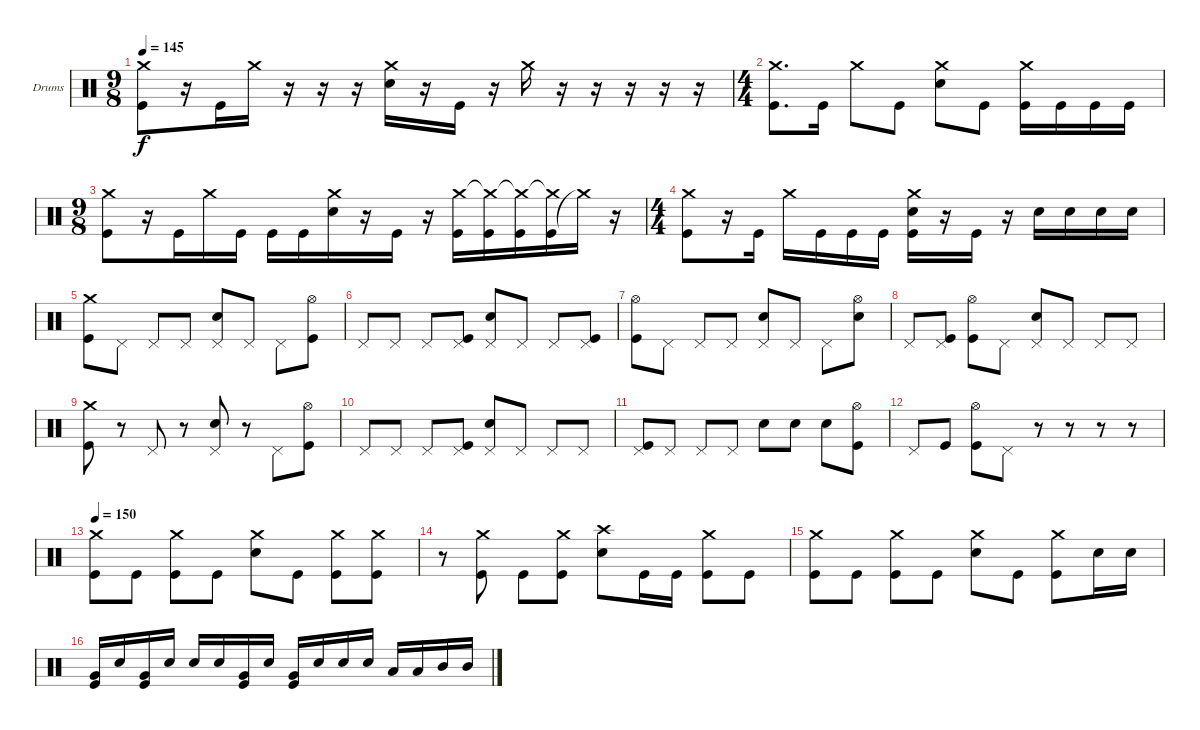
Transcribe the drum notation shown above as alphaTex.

\defaultSystemsLayout 4
\bracketExtendMode groupsimilarinstruments
\firstSystemTrackNameOrientation horizontal
\otherSystemsTrackNameOrientation horizontal
\track ("Moe Carlson" "Drums") {instrument percussion}
\staff {score}
\articulation defaults
\ts (9 8)
\tempo 145
\clef neutral
\ks c
("Crash medium (hit)" "Kick (hit)").8{dy f} r.16 "Kick (hit)".16 "Crash medium (hit)".16 r.16 r.16 r.16 ("Snare (hit) 2" "Crash medium (hit)").16 r.16 "Kick (hit)".16 r.16 "Crash medium (hit)".16 r.16 r.16 r.16 r.16 r.16 |
\ts (4 4)
("Crash medium (hit)" "Kick (hit)").8{d} "Kick (hit)".16 "Crash medium (hit)".8 "Kick (hit)".8 ("Snare (hit) 2" "Crash medium (hit)").8 "Kick (hit)".8 ("Kick (hit)" "Crash medium (hit)").16 "Kick (hit)".16 "Kick (hit)".16 "Kick (hit)".16 |
\ts (9 8)
("Kick (hit)" "Crash medium (hit)").8 r.16 "Kick (hit)".16 "Crash medium (hit)".16 "Kick (hit)".16 "Kick (hit)".16 "Kick (hit)".16 ("Snare (hit) 2" "Crash medium (hit)").16 r.16 "Kick (hit)".16 r.16 ("Kick (hit)" "Crash medium (hit)").16 ("Kick (hit)" "Crash medium (hit)"{t}).16 ("Kick (hit)" "Crash medium (hit)"{t}).16 ("Kick (hit)" "Crash medium (hit)"{t}).16 "Crash medium (hit)"{t}.16 r.16 |
\ts (4 4)
("Crash medium (hit)" "Kick (hit)").8 r.16 "Kick (hit)".16 "Crash medium (hit)".16 "Kick (hit)".16 "Kick (hit)".16 "Kick (hit)".16 ("Kick (hit)" "Snare (hit) 2" "Crash medium (hit)").16 r.16 "Kick (hit)".16 r.16 "Snare (hit) 2".16 "Snare (hit) 2".16 "Snare (hit) 2".16 "Snare (hit) 2".16 |
("Crash medium (hit)" "Kick (hit)").8 "Pedal Hi-Hat (hit)".8 "Pedal Hi-Hat (hit)".8 "Pedal Hi-Hat (hit)".8 ("Snare (hit) 2" "Pedal Hi-Hat (hit)").8 "Pedal Hi-Hat (hit)".8 "Pedal Hi-Hat (hit)".8 ("Hi-Hat (open)" "Kick (hit)").8 |
"Pedal Hi-Hat (hit)".8 "Pedal Hi-Hat (hit)".8 "Pedal Hi-Hat (hit)".8 ("Kick (hit)" "Pedal Hi-Hat (hit)").8 ("Pedal Hi-Hat (hit)" "Snare (hit) 2").8 "Pedal Hi-Hat (hit)".8 "Pedal Hi-Hat (hit)".8 ("Pedal Hi-Hat (hit)" "Kick (hit)").8 |
("Kick (hit)" "Hi-Hat (open)").8 "Pedal Hi-Hat (hit)".8 "Pedal Hi-Hat (hit)".8 "Pedal Hi-Hat (hit)".8 ("Pedal Hi-Hat (hit)" "Snare (hit) 2").8 "Pedal Hi-Hat (hit)".8 "Pedal Hi-Hat (hit)".8 ("Hi-Hat (open)" "Snare (hit) 2").8 |
"Pedal Hi-Hat (hit)".8 ("Pedal Hi-Hat (hit)" "Kick (hit)").8 ("Hi-Hat (open)" "Kick (hit)").8 "Pedal Hi-Hat (hit)".8 ("Pedal Hi-Hat (hit)" "Snare (hit) 2").8 "Pedal Hi-Hat (hit)".8 "Pedal Hi-Hat (hit)".8 "Pedal Hi-Hat (hit)".8 |
("Kick (hit)" "Crash medium (hit)").8 r.8 "Pedal Hi-Hat (hit)".8 r.8 ("Snare (hit) 2" "Pedal Hi-Hat (hit)").8 r.8 "Pedal Hi-Hat (hit)".8 ("Kick (hit)" "Hi-Hat (open)").8 |
"Pedal Hi-Hat (hit)".8 "Pedal Hi-Hat (hit)".8 "Pedal Hi-Hat (hit)".8 ("Pedal Hi-Hat (hit)" "Kick (hit)").8 ("Pedal Hi-Hat (hit)" "Snare (hit) 2").8 "Pedal Hi-Hat (hit)".8 "Pedal Hi-Hat (hit)".8 "Pedal Hi-Hat (hit)".8 |
("Pedal Hi-Hat (hit)" "Kick (hit)").8 "Pedal Hi-Hat (hit)".8 "Pedal Hi-Hat (hit)".8 "Pedal Hi-Hat (hit)".8 "Snare (hit) 2".8 "Snare (hit) 2".8 "Snare (hit) 2".8 ("Hi-Hat (open)" "Kick (hit)").8 |
"Pedal Hi-Hat (hit)".8 "Kick (hit)".8 ("Kick (hit)" "Hi-Hat (open)").8 "Pedal Hi-Hat (hit)".8 r.8 r.8 r.8 r.8 |
\tempo 150
("Kick (hit)" "Crash medium (hit)").8 "Kick (hit)".8 ("Kick (hit)" "Crash medium (hit)").8 "Kick (hit)".8 ("Snare (hit) 2" "Crash medium (hit)").8 "Kick (hit)".8 ("Kick (hit)" "Crash medium (hit)").8 ("Kick (hit)" "Crash medium (hit)").8 |
r.8 ("Crash medium (hit)" "Kick (hit)").8 "Kick (hit)".8 ("Kick (hit)" "Crash medium (hit)").8 ("Crash high (hit)" "Snare (hit) 2").8 "Kick (hit)".16 "Kick (hit)".16 ("Kick (hit)" "Crash medium (hit)").8 "Kick (hit)".8 |
("Crash medium (hit)" "Kick (hit)").8 "Kick (hit)".8 ("Kick (hit)" "Crash medium (hit)").8 "Kick (hit)".8 ("Snare (hit) 2" "Crash medium (hit)").8 "Kick (hit)".8 ("Kick (hit)" "Crash medium (hit)").8 "Snare (hit) 2".16 "Snare (hit) 2".16 |
("Kick (hit)" "Very Low Tom (hit)").16 "Snare (hit) 2".16 ("Kick (hit)" "Very Low Tom (hit)").16 "Snare (hit) 2".16 "Snare (hit) 2".16 "Snare (hit) 2".16 ("Kick (hit)" "Very Low Tom (hit)").16 "Snare (hit) 2".16 ("Kick (hit)" "Very Low Tom (hit)").16 "Snare (hit) 2".16 "Snare (hit) 2".16 "Snare (hit) 2".16 "Low Tom (hit)".16 "Low Tom (hit)".16 "Mid Tom (hit)".16 "Mid Tom (hit)".16
